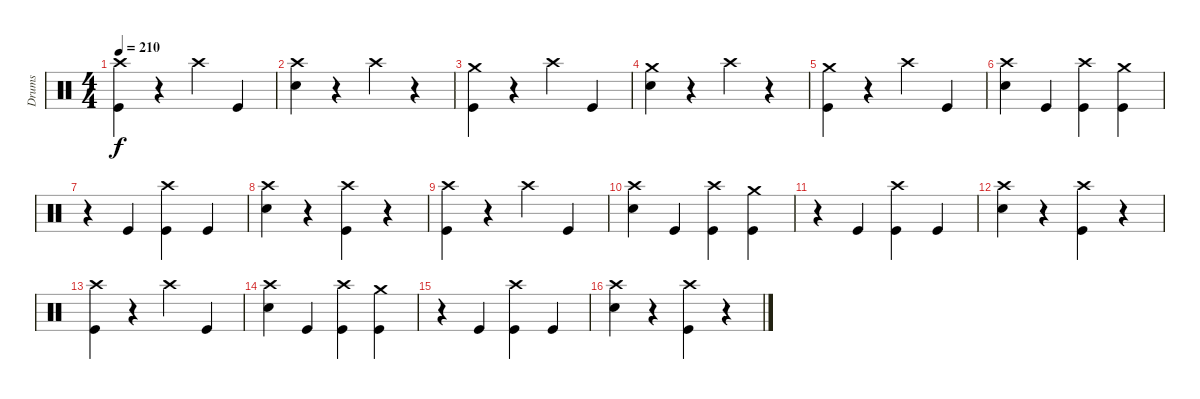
\track ("Drums" "Drums") {instrument percussion}
\staff {score}
\articulation defaults
\ts (4 4)
\tempo 210
\clef neutral
\ks c
("Crash high (hit)" "Kick (hit)").4{dy f} r.4 "Crash high (hit)".4 "Kick (hit)".4 |
("Crash high (hit)" "Snare (hit) 2").4 r.4 "Crash high (hit)".4 r.4 |
("Crash medium (hit)" "Kick (hit)").4 r.4 "Crash high (hit)".4 "Kick (hit)".4 |
("Crash medium (hit)" "Snare (hit) 2").4 r.4 "Crash high (hit)".4 r.4 |
("Crash medium (hit)" "Kick (hit)").4 r.4 "Crash high (hit)".4 "Kick (hit)".4 |
("Crash high (hit)" "Snare (hit) 2").4 "Kick (hit)".4 ("Crash high (hit)" "Kick (hit)").4 ("Crash medium (hit)" "Kick (hit)").4 |
r.4 "Kick (hit)".4 ("Crash high (hit)" "Kick (hit)").4 "Kick (hit)".4 |
("Crash high (hit)" "Snare (hit) 2").4 r.4 ("Crash high (hit)" "Kick (hit)").4 r.4 |
("Crash high (hit)" "Kick (hit)").4 r.4 "Crash high (hit)".4 "Kick (hit)".4 |
("Crash high (hit)" "Snare (hit) 2").4 "Kick (hit)".4 ("Crash high (hit)" "Kick (hit)").4 ("Crash medium (hit)" "Kick (hit)").4 |
r.4 "Kick (hit)".4 ("Crash high (hit)" "Kick (hit)").4 "Kick (hit)".4 |
("Crash high (hit)" "Snare (hit) 2").4 r.4 ("Crash high (hit)" "Kick (hit)").4 r.4 |
("Crash high (hit)" "Kick (hit)").4 r.4 "Crash high (hit)".4 "Kick (hit)".4 |
("Crash high (hit)" "Snare (hit) 2").4 "Kick (hit)".4 ("Crash high (hit)" "Kick (hit)").4 ("Crash medium (hit)" "Kick (hit)").4 |
r.4 "Kick (hit)".4 ("Crash high (hit)" "Kick (hit)").4 "Kick (hit)".4 |
("Crash high (hit)" "Snare (hit) 2").4 r.4 ("Crash high (hit)" "Kick (hit)").4 r.4
